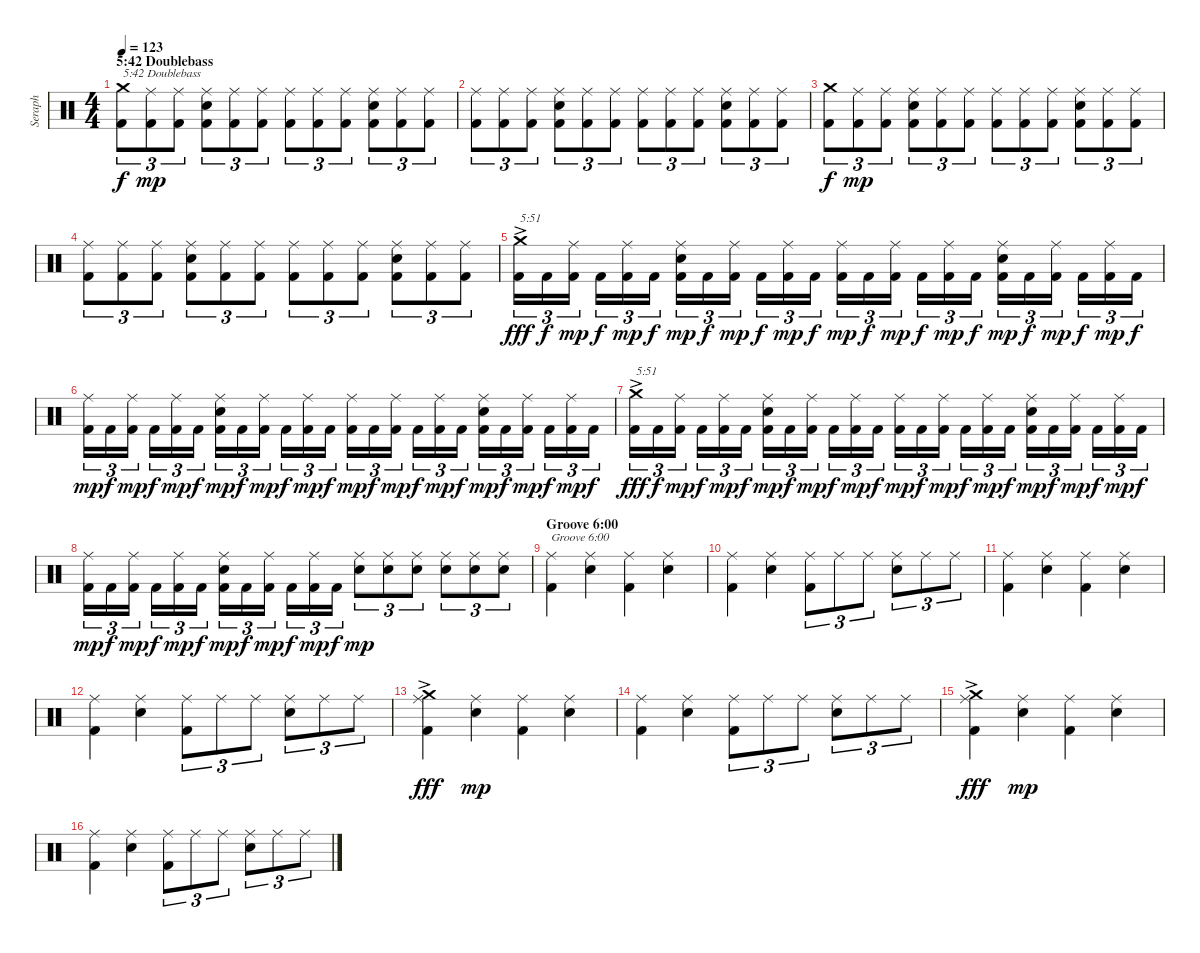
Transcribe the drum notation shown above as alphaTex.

\track ("Seraph" "Seraph") {instrument percussion}
\staff {score}
\articulation defaults
\ts (4 4)
\section ("" "5:42 Doublebass ")
\tempo 123
\clef neutral
\ks c
("Kick (hit) 2" "Crash medium (hit)").8{tu (3 2) txt "5:42 Doublebass " dy f} ("Kick (hit) 2" "Ride (middle)").8{tu (3 2) dy mp} ("Kick (hit) 2" "Ride (middle)").8{tu (3 2)} ("Kick (hit) 2" "Electric Snare (hit)" "Ride (middle)").8{tu (3 2)} ("Kick (hit) 2" "Ride (middle)").8{tu (3 2)} ("Kick (hit) 2" "Ride (middle)").8{tu (3 2)} ("Kick (hit) 2" "Ride (middle)").8{tu (3 2)} ("Kick (hit) 2" "Ride (middle)").8{tu (3 2)} ("Kick (hit) 2" "Ride (middle)").8{tu (3 2)} ("Kick (hit) 2" "Electric Snare (hit)" "Ride (middle)").8{tu (3 2)} ("Kick (hit) 2" "Ride (middle)").8{tu (3 2)} ("Kick (hit) 2" "Ride (middle)").8{tu (3 2)} |
("Kick (hit) 2" "Ride (middle)").8{tu (3 2)} ("Kick (hit) 2" "Ride (middle)").8{tu (3 2)} ("Kick (hit) 2" "Ride (middle)").8{tu (3 2)} ("Kick (hit) 2" "Electric Snare (hit)" "Ride (middle)").8{tu (3 2)} ("Kick (hit) 2" "Ride (middle)").8{tu (3 2)} ("Kick (hit) 2" "Ride (middle)").8{tu (3 2)} ("Kick (hit) 2" "Ride (middle)").8{tu (3 2)} ("Kick (hit) 2" "Ride (middle)").8{tu (3 2)} ("Kick (hit) 2" "Ride (middle)").8{tu (3 2)} ("Kick (hit) 2" "Electric Snare (hit)" "Ride (middle)").8{tu (3 2)} ("Kick (hit) 2" "Ride (middle)").8{tu (3 2)} ("Kick (hit) 2" "Ride (middle)").8{tu (3 2)} |
("Kick (hit) 2" "Crash medium (hit)").8{tu (3 2) dy f} ("Kick (hit) 2" "Ride (middle)").8{tu (3 2) dy mp} ("Kick (hit) 2" "Ride (middle)").8{tu (3 2)} ("Kick (hit) 2" "Electric Snare (hit)" "Ride (middle)").8{tu (3 2)} ("Kick (hit) 2" "Ride (middle)").8{tu (3 2)} ("Kick (hit) 2" "Ride (middle)").8{tu (3 2)} ("Kick (hit) 2" "Ride (middle)").8{tu (3 2)} ("Kick (hit) 2" "Ride (middle)").8{tu (3 2)} ("Kick (hit) 2" "Ride (middle)").8{tu (3 2)} ("Kick (hit) 2" "Electric Snare (hit)" "Ride (middle)").8{tu (3 2)} ("Kick (hit) 2" "Ride (middle)").8{tu (3 2)} ("Kick (hit) 2" "Ride (middle)").8{tu (3 2)} |
("Kick (hit) 2" "Ride (middle)").8{tu (3 2)} ("Kick (hit) 2" "Ride (middle)").8{tu (3 2)} ("Kick (hit) 2" "Ride (middle)").8{tu (3 2)} ("Kick (hit) 2" "Electric Snare (hit)" "Ride (middle)").8{tu (3 2)} ("Kick (hit) 2" "Ride (middle)").8{tu (3 2)} ("Kick (hit) 2" "Ride (middle)").8{tu (3 2)} ("Kick (hit) 2" "Ride (middle)").8{tu (3 2)} ("Kick (hit) 2" "Ride (middle)").8{tu (3 2)} ("Kick (hit) 2" "Ride (middle)").8{tu (3 2)} ("Kick (hit) 2" "Electric Snare (hit)" "Ride (middle)").8{tu (3 2)} ("Kick (hit) 2" "Ride (middle)").8{tu (3 2)} ("Kick (hit) 2" "Ride (middle)").8{tu (3 2)} |
("Kick (hit) 2" "Crash medium (hit)"{ac}).16{tu (3 2) txt "5:51" dy fff} "Kick (hit) 2".16{tu (3 2) dy f} ("Kick (hit) 2" "Ride (middle)").16{tu (3 2) dy mp} "Kick (hit) 2".16{tu (3 2) dy f} ("Kick (hit) 2" "Ride (middle)").16{tu (3 2) dy mp} "Kick (hit) 2".16{tu (3 2) dy f} ("Kick (hit) 2" "Electric Snare (hit)" "Ride (middle)").16{tu (3 2) dy mp} "Kick (hit) 2".16{tu (3 2) dy f} ("Kick (hit) 2" "Ride (middle)").16{tu (3 2) dy mp} "Kick (hit) 2".16{tu (3 2) dy f} ("Kick (hit) 2" "Ride (middle)").16{tu (3 2) dy mp} "Kick (hit) 2".16{tu (3 2) dy f} ("Kick (hit) 2" "Ride (middle)").16{tu (3 2) dy mp} "Kick (hit) 2".16{tu (3 2) dy f} ("Kick (hit) 2" "Ride (middle)").16{tu (3 2) dy mp} "Kick (hit) 2".16{tu (3 2) dy f} ("Kick (hit) 2" "Ride (middle)").16{tu (3 2) dy mp} "Kick (hit) 2".16{tu (3 2) dy f} ("Kick (hit) 2" "Electric Snare (hit)" "Ride (middle)").16{tu (3 2) dy mp} "Kick (hit) 2".16{tu (3 2) dy f} ("Kick (hit) 2" "Ride (middle)").16{tu (3 2) dy mp} "Kick (hit) 2".16{tu (3 2) dy f} ("Kick (hit) 2" "Ride (middle)").16{tu (3 2) dy mp} "Kick (hit) 2".16{tu (3 2) dy f} |
("Kick (hit) 2" "Ride (middle)").16{tu (3 2) dy mp} "Kick (hit) 2".16{tu (3 2) dy f} ("Kick (hit) 2" "Ride (middle)").16{tu (3 2) dy mp} "Kick (hit) 2".16{tu (3 2) dy f} ("Kick (hit) 2" "Ride (middle)").16{tu (3 2) dy mp} "Kick (hit) 2".16{tu (3 2) dy f} ("Kick (hit) 2" "Electric Snare (hit)" "Ride (middle)").16{tu (3 2) dy mp} "Kick (hit) 2".16{tu (3 2) dy f} ("Kick (hit) 2" "Ride (middle)").16{tu (3 2) dy mp} "Kick (hit) 2".16{tu (3 2) dy f} ("Kick (hit) 2" "Ride (middle)").16{tu (3 2) dy mp} "Kick (hit) 2".16{tu (3 2) dy f} ("Kick (hit) 2" "Ride (middle)").16{tu (3 2) dy mp} "Kick (hit) 2".16{tu (3 2) dy f} ("Kick (hit) 2" "Ride (middle)").16{tu (3 2) dy mp} "Kick (hit) 2".16{tu (3 2) dy f} ("Kick (hit) 2" "Ride (middle)").16{tu (3 2) dy mp} "Kick (hit) 2".16{tu (3 2) dy f} ("Kick (hit) 2" "Electric Snare (hit)" "Ride (middle)").16{tu (3 2) dy mp} "Kick (hit) 2".16{tu (3 2) dy f} ("Kick (hit) 2" "Ride (middle)").16{tu (3 2) dy mp} "Kick (hit) 2".16{tu (3 2) dy f} ("Kick (hit) 2" "Ride (middle)").16{tu (3 2) dy mp} "Kick (hit) 2".16{tu (3 2) dy f} |
("Kick (hit) 2" "Crash medium (hit)"{ac}).16{tu (3 2) txt "5:51" dy fff} "Kick (hit) 2".16{tu (3 2) dy f} ("Kick (hit) 2" "Ride (middle)").16{tu (3 2) dy mp} "Kick (hit) 2".16{tu (3 2) dy f} ("Kick (hit) 2" "Ride (middle)").16{tu (3 2) dy mp} "Kick (hit) 2".16{tu (3 2) dy f} ("Kick (hit) 2" "Electric Snare (hit)" "Ride (middle)").16{tu (3 2) dy mp} "Kick (hit) 2".16{tu (3 2) dy f} ("Kick (hit) 2" "Ride (middle)").16{tu (3 2) dy mp} "Kick (hit) 2".16{tu (3 2) dy f} ("Kick (hit) 2" "Ride (middle)").16{tu (3 2) dy mp} "Kick (hit) 2".16{tu (3 2) dy f} ("Kick (hit) 2" "Ride (middle)").16{tu (3 2) dy mp} "Kick (hit) 2".16{tu (3 2) dy f} ("Kick (hit) 2" "Ride (middle)").16{tu (3 2) dy mp} "Kick (hit) 2".16{tu (3 2) dy f} ("Kick (hit) 2" "Ride (middle)").16{tu (3 2) dy mp} "Kick (hit) 2".16{tu (3 2) dy f} ("Kick (hit) 2" "Electric Snare (hit)" "Ride (middle)").16{tu (3 2) dy mp} "Kick (hit) 2".16{tu (3 2) dy f} ("Kick (hit) 2" "Ride (middle)").16{tu (3 2) dy mp} "Kick (hit) 2".16{tu (3 2) dy f} ("Kick (hit) 2" "Ride (middle)").16{tu (3 2) dy mp} "Kick (hit) 2".16{tu (3 2) dy f} |
("Kick (hit) 2" "Ride (middle)").16{tu (3 2) dy mp} "Kick (hit) 2".16{tu (3 2) dy f} ("Kick (hit) 2" "Ride (middle)").16{tu (3 2) dy mp} "Kick (hit) 2".16{tu (3 2) dy f} ("Kick (hit) 2" "Ride (middle)").16{tu (3 2) dy mp} "Kick (hit) 2".16{tu (3 2) dy f} ("Kick (hit) 2" "Electric Snare (hit)" "Ride (middle)").16{tu (3 2) dy mp} "Kick (hit) 2".16{tu (3 2) dy f} ("Kick (hit) 2" "Ride (middle)").16{tu (3 2) dy mp} "Kick (hit) 2".16{tu (3 2) dy f} ("Kick (hit) 2" "Ride (middle)").16{tu (3 2) dy mp} "Kick (hit) 2".16{tu (3 2) dy f} ("Electric Snare (hit)" "Ride (middle)").8{tu (3 2) dy mp} ("Electric Snare (hit)" "Ride (middle)").8{tu (3 2)} ("Electric Snare (hit)" "Ride (middle)").8{tu (3 2)} ("Electric Snare (hit)" "Ride (middle)").8{tu (3 2)} ("Electric Snare (hit)" "Ride (middle)").8{tu (3 2)} ("Electric Snare (hit)" "Ride (middle)").8{tu (3 2)} |
\section ("" "Groove 6:00")
("Kick (hit) 2" "Ride (middle)").4{txt "Groove 6:00"} ("Electric Snare (hit)" "Ride (middle)").4 ("Kick (hit) 2" "Ride (middle)").4 ("Electric Snare (hit)" "Ride (middle)").4 |
("Kick (hit) 2" "Ride (middle)").4 ("Electric Snare (hit)" "Ride (middle)").4 ("Kick (hit) 2" "Ride (middle)").8{tu (3 2)} "Ride (middle)".8{tu (3 2)} "Ride (middle)".8{tu (3 2)} ("Electric Snare (hit)" "Ride (middle)").8{tu (3 2)} "Ride (middle)".8{tu (3 2)} "Ride (middle)".8{tu (3 2)} |
("Kick (hit) 2" "Ride (middle)").4 ("Electric Snare (hit)" "Ride (middle)").4 ("Kick (hit) 2" "Ride (middle)").4 ("Electric Snare (hit)" "Ride (middle)").4 |
("Kick (hit) 2" "Ride (middle)").4 ("Electric Snare (hit)" "Ride (middle)").4 ("Kick (hit) 2" "Ride (middle)").8{tu (3 2)} "Ride (middle)".8{tu (3 2)} "Ride (middle)".8{tu (3 2)} ("Electric Snare (hit)" "Ride (middle)").8{tu (3 2)} "Ride (middle)".8{tu (3 2)} "Ride (middle)".8{tu (3 2)} |
("Kick (hit) 2" "Ride (middle)" "Crash medium (hit)"{ac}).4{dy fff} ("Electric Snare (hit)" "Ride (middle)").4{dy mp} ("Kick (hit) 2" "Ride (middle)").4 ("Electric Snare (hit)" "Ride (middle)").4 |
("Kick (hit) 2" "Ride (middle)").4 ("Electric Snare (hit)" "Ride (middle)").4 ("Kick (hit) 2" "Ride (middle)").8{tu (3 2)} "Ride (middle)".8{tu (3 2)} "Ride (middle)".8{tu (3 2)} ("Electric Snare (hit)" "Ride (middle)").8{tu (3 2)} "Ride (middle)".8{tu (3 2)} "Ride (middle)".8{tu (3 2)} |
("Kick (hit) 2" "Ride (middle)" "Crash medium (hit)"{ac}).4{dy fff} ("Electric Snare (hit)" "Ride (middle)").4{dy mp} ("Kick (hit) 2" "Ride (middle)").4 ("Electric Snare (hit)" "Ride (middle)").4 |
("Kick (hit) 2" "Ride (middle)").4 ("Electric Snare (hit)" "Ride (middle)").4 ("Kick (hit) 2" "Ride (middle)").8{tu (3 2)} "Ride (middle)".8{tu (3 2)} "Ride (middle)".8{tu (3 2)} ("Electric Snare (hit)" "Ride (middle)").8{tu (3 2)} "Ride (middle)".8{tu (3 2)} "Ride (middle)".8{tu (3 2)}
